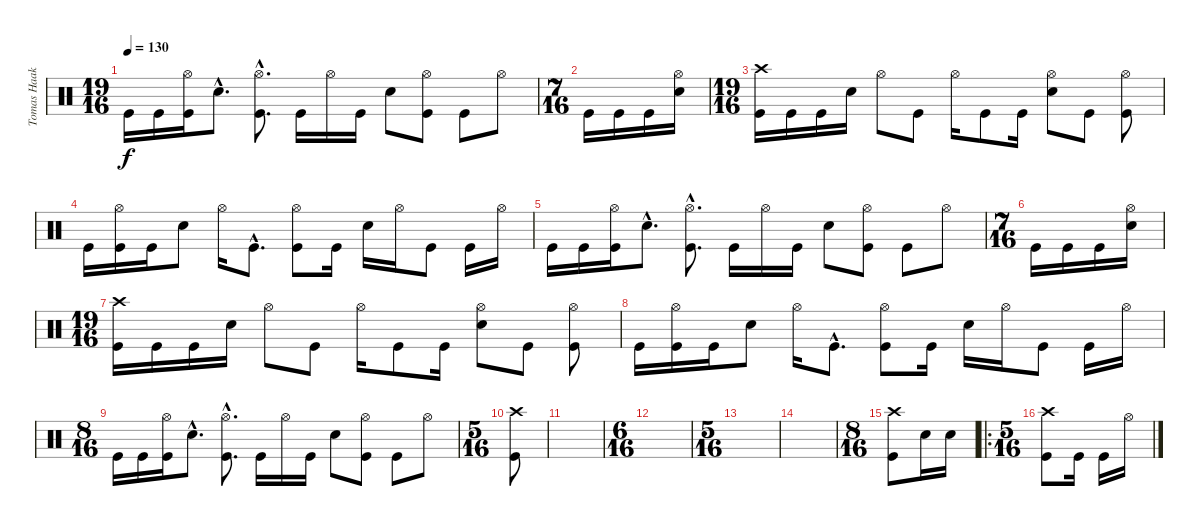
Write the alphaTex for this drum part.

\track ("Tomas Haake - Drums" "Tomas Haak") {instrument percussion}
\staff {score}
\articulation defaults
\ts (19 16)
\tempo 130
\clef neutral
\ks c "Kick (hit)".16{dy f} "Kick (hit)".16
("Hi-Hat (open)" "Kick (hit)").16 "Electric Snare (hit)"{hac}.8{d} ("Hi-Hat (open)"{hac} "Kick (hit)"{hac}).8{d} "Kick (hit)".16 "Hi-Hat (open)".16 "Kick (hit)".16 "Electric Snare (hit)".8 ("Hi-Hat (open)" "Kick (hit)").8 "Kick (hit)".8 "Hi-Hat (open)".8 |
\ts (7 16)
"Kick (hit)".16 "Kick (hit)".16 "Kick (hit)".16 ("Hi-Hat (open)" "Electric Snare (hit)").16 |
\ts (19 16)
("Crash high (hit)" "Kick (hit)").16 "Kick (hit)".16 "Kick (hit)".16 "Electric Snare (hit)".16 "Hi-Hat (open)".8 "Kick (hit)".8 "Hi-Hat (open)".16 "Kick (hit)".8 "Kick (hit)".16 ("Hi-Hat (open)" "Electric Snare (hit)").8 "Kick (hit)".8 ("Hi-Hat (open)" "Kick (hit)").8 |
"Kick (hit)".16 ("Hi-Hat (open)" "Kick (hit)").16 "Kick (hit)".16 "Electric Snare (hit)".8 "Hi-Hat (open)".16 "Kick (hit)"{hac}.8{d} ("Hi-Hat (open)" "Kick (hit)").8 "Kick (hit)".16 "Electric Snare (hit)".16 "Hi-Hat (open)".16 "Kick (hit)".8 "Kick (hit)".16 "Hi-Hat (open)".16 |
"Kick (hit)".16 "Kick (hit)".16 ("Hi-Hat (open)" "Kick (hit)").16 "Electric Snare (hit)"{hac}.8{d} ("Hi-Hat (open)"{hac} "Kick (hit)"{hac}).8{d} "Kick (hit)".16 "Hi-Hat (open)".16 "Kick (hit)".16 "Electric Snare (hit)".8 ("Hi-Hat (open)" "Kick (hit)").8 "Kick (hit)".8 "Hi-Hat (open)".8 |
\ts (7 16)
"Kick (hit)".16 "Kick (hit)".16 "Kick (hit)".16 ("Hi-Hat (open)" "Electric Snare (hit)").16 |
\ts (19 16)
("Crash high (hit)" "Kick (hit)").16 "Kick (hit)".16 "Kick (hit)".16 "Electric Snare (hit)".16 "Hi-Hat (open)".8 "Kick (hit)".8 "Hi-Hat (open)".16 "Kick (hit)".8 "Kick (hit)".16 ("Hi-Hat (open)" "Electric Snare (hit)").8 "Kick (hit)".8 ("Hi-Hat (open)" "Kick (hit)").8 |
"Kick (hit)".16 ("Hi-Hat (open)" "Kick (hit)").16 "Kick (hit)".16 "Electric Snare (hit)".8 "Hi-Hat (open)".16 "Kick (hit)"{hac}.8{d} ("Hi-Hat (open)" "Kick (hit)").8 "Kick (hit)".16 "Electric Snare (hit)".16 "Hi-Hat (open)".16 "Kick (hit)".8 "Kick (hit)".16 "Hi-Hat (open)".16 |
\ts (8 16)
"Kick (hit)".16 "Kick (hit)".16 ("Hi-Hat (open)" "Kick (hit)").16 "Electric Snare (hit)"{hac}.8{d} ("Hi-Hat (open)"{hac} "Kick (hit)"{hac}).8{d} "Kick (hit)".16 "Hi-Hat (open)".16 "Kick (hit)".16 "Electric Snare (hit)".8 ("Hi-Hat (open)" "Kick (hit)").8 "Kick (hit)".8 "Hi-Hat (open)".8 |
\ts (5 16)
("Crash high (hit)" "Kick (hit)").8 |
|
\ts (6 16)
|
\ts (5 16)
|
|
\ts (8 16)
("Crash high (hit)" "Kick (hit)").8 "Electric Snare (hit)".16 "Electric Snare (hit)".16 |
\ro
\ts (5 16)
("Crash high (hit)" "Kick (hit)").8 "Kick (hit)".16 "Kick (hit)".16 "Hi-Hat (open)".16
